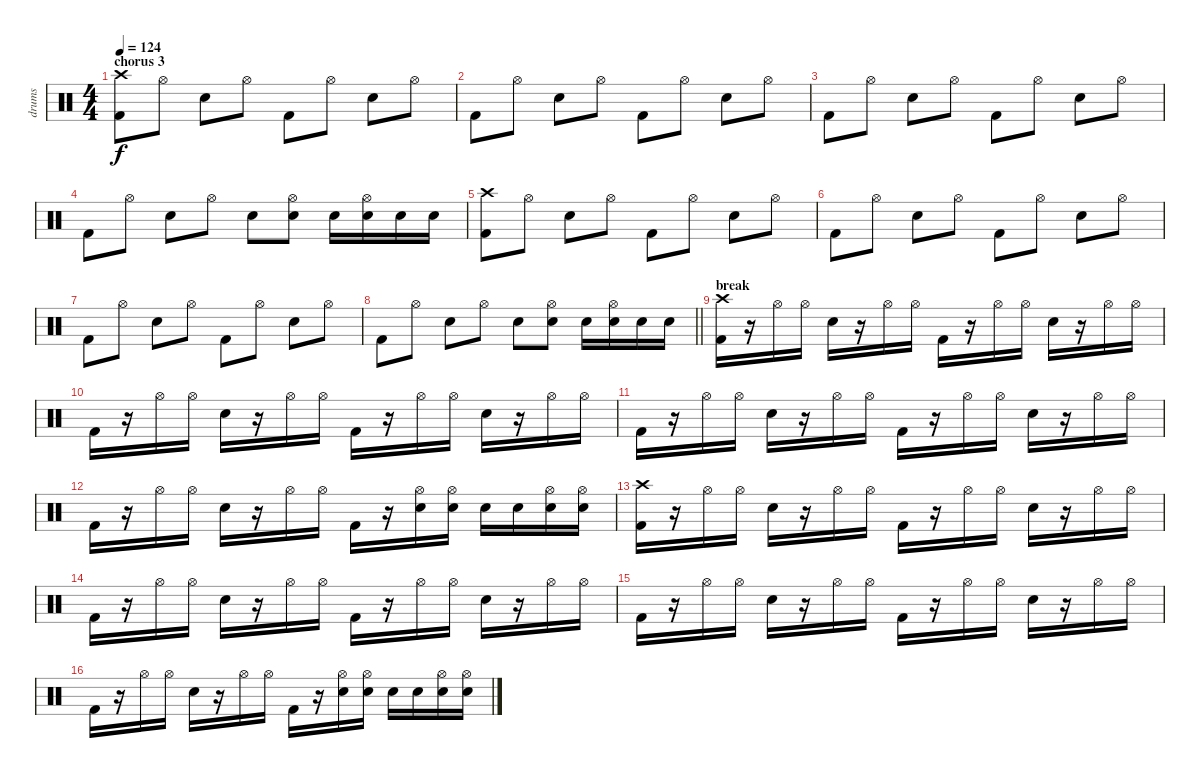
\track ("drums" "drums") {instrument percussion}
\staff {score}
\articulation defaults
\ts (4 4)
\section ("" "chorus 3")
\tempo 124
\clef neutral
\ks c
("Kick (hit) 2" "Crash high (hit)").8{dy f} "Hi-Hat (open)".8 "Electric Snare (hit)".8 "Hi-Hat (open)".8 "Kick (hit) 2".8 "Hi-Hat (open)".8 "Electric Snare (hit)".8 "Hi-Hat (open)".8 |
"Kick (hit) 2".8 "Hi-Hat (open)".8 "Electric Snare (hit)".8 "Hi-Hat (open)".8 "Kick (hit) 2".8 "Hi-Hat (open)".8 "Electric Snare (hit)".8 "Hi-Hat (open)".8 |
"Kick (hit) 2".8 "Hi-Hat (open)".8 "Electric Snare (hit)".8 "Hi-Hat (open)".8 "Kick (hit) 2".8 "Hi-Hat (open)".8 "Electric Snare (hit)".8 "Hi-Hat (open)".8 |
"Kick (hit) 2".8 "Hi-Hat (open)".8 "Electric Snare (hit)".8 "Hi-Hat (open)".8 "Electric Snare (hit)".8 ("Electric Snare (hit)" "Hi-Hat (open)").8 "Electric Snare (hit)".16 ("Electric Snare (hit)" "Hi-Hat (open)").16 "Electric Snare (hit)".16 "Electric Snare (hit)".16 |
("Kick (hit) 2" "Crash high (hit)").8 "Hi-Hat (open)".8 "Electric Snare (hit)".8 "Hi-Hat (open)".8 "Kick (hit) 2".8 "Hi-Hat (open)".8 "Electric Snare (hit)".8 "Hi-Hat (open)".8 |
"Kick (hit) 2".8 "Hi-Hat (open)".8 "Electric Snare (hit)".8 "Hi-Hat (open)".8 "Kick (hit) 2".8 "Hi-Hat (open)".8 "Electric Snare (hit)".8 "Hi-Hat (open)".8 |
"Kick (hit) 2".8 "Hi-Hat (open)".8 "Electric Snare (hit)".8 "Hi-Hat (open)".8 "Kick (hit) 2".8 "Hi-Hat (open)".8 "Electric Snare (hit)".8 "Hi-Hat (open)".8 |
\barLineRight lightlight "Kick (hit) 2".8 "Hi-Hat (open)".8 "Electric Snare (hit)".8 "Hi-Hat (open)".8 "Electric Snare (hit)".8
("Electric Snare (hit)" "Hi-Hat (open)").8 "Electric Snare (hit)".16 ("Electric Snare (hit)" "Hi-Hat (open)").16 "Electric Snare (hit)".16 "Electric Snare (hit)".16 |
\section ("" "break")
("Kick (hit) 2" "Crash high (hit)").16 r.16 "Hi-Hat (open)".16 "Hi-Hat (open)".16 "Electric Snare (hit)".16 r.16 "Hi-Hat (open)".16 "Hi-Hat (open)".16 "Kick (hit) 2".16 r.16 "Hi-Hat (open)".16 "Hi-Hat (open)".16 "Electric Snare (hit)".16 r.16 "Hi-Hat (open)".16 "Hi-Hat (open)".16 |
"Kick (hit) 2".16 r.16 "Hi-Hat (open)".16 "Hi-Hat (open)".16 "Electric Snare (hit)".16 r.16 "Hi-Hat (open)".16 "Hi-Hat (open)".16 "Kick (hit) 2".16 r.16 "Hi-Hat (open)".16 "Hi-Hat (open)".16 "Electric Snare (hit)".16 r.16 "Hi-Hat (open)".16 "Hi-Hat (open)".16 |
"Kick (hit) 2".16 r.16 "Hi-Hat (open)".16 "Hi-Hat (open)".16 "Electric Snare (hit)".16 r.16 "Hi-Hat (open)".16 "Hi-Hat (open)".16 "Kick (hit) 2".16 r.16 "Hi-Hat (open)".16 "Hi-Hat (open)".16 "Electric Snare (hit)".16 r.16 "Hi-Hat (open)".16 "Hi-Hat (open)".16 |
"Kick (hit) 2".16 r.16 "Hi-Hat (open)".16 "Hi-Hat (open)".16 "Electric Snare (hit)".16 r.16 "Hi-Hat (open)".16 "Hi-Hat (open)".16 "Kick (hit) 2".16 r.16 ("Electric Snare (hit)" "Hi-Hat (open)").16 ("Electric Snare (hit)" "Hi-Hat (open)").16 "Electric Snare (hit)".16 "Electric Snare (hit)".16 ("Electric Snare (hit)" "Hi-Hat (open)").16 ("Electric Snare (hit)" "Hi-Hat (open)").16 |
("Kick (hit) 2" "Crash high (hit)").16 r.16 "Hi-Hat (open)".16 "Hi-Hat (open)".16 "Electric Snare (hit)".16 r.16 "Hi-Hat (open)".16 "Hi-Hat (open)".16 "Kick (hit) 2".16 r.16 "Hi-Hat (open)".16 "Hi-Hat (open)".16 "Electric Snare (hit)".16 r.16 "Hi-Hat (open)".16 "Hi-Hat (open)".16 |
"Kick (hit) 2".16 r.16 "Hi-Hat (open)".16 "Hi-Hat (open)".16 "Electric Snare (hit)".16 r.16 "Hi-Hat (open)".16 "Hi-Hat (open)".16 "Kick (hit) 2".16 r.16 "Hi-Hat (open)".16 "Hi-Hat (open)".16 "Electric Snare (hit)".16 r.16 "Hi-Hat (open)".16 "Hi-Hat (open)".16 |
"Kick (hit) 2".16 r.16 "Hi-Hat (open)".16 "Hi-Hat (open)".16 "Electric Snare (hit)".16 r.16 "Hi-Hat (open)".16 "Hi-Hat (open)".16 "Kick (hit) 2".16 r.16 "Hi-Hat (open)".16 "Hi-Hat (open)".16 "Electric Snare (hit)".16 r.16 "Hi-Hat (open)".16 "Hi-Hat (open)".16 |
"Kick (hit) 2".16 r.16 "Hi-Hat (open)".16 "Hi-Hat (open)".16 "Electric Snare (hit)".16 r.16 "Hi-Hat (open)".16 "Hi-Hat (open)".16 "Kick (hit) 2".16 r.16 ("Electric Snare (hit)" "Hi-Hat (open)").16 ("Electric Snare (hit)" "Hi-Hat (open)").16 "Electric Snare (hit)".16 "Electric Snare (hit)".16 ("Electric Snare (hit)" "Hi-Hat (open)").16 ("Electric Snare (hit)" "Hi-Hat (open)").16
